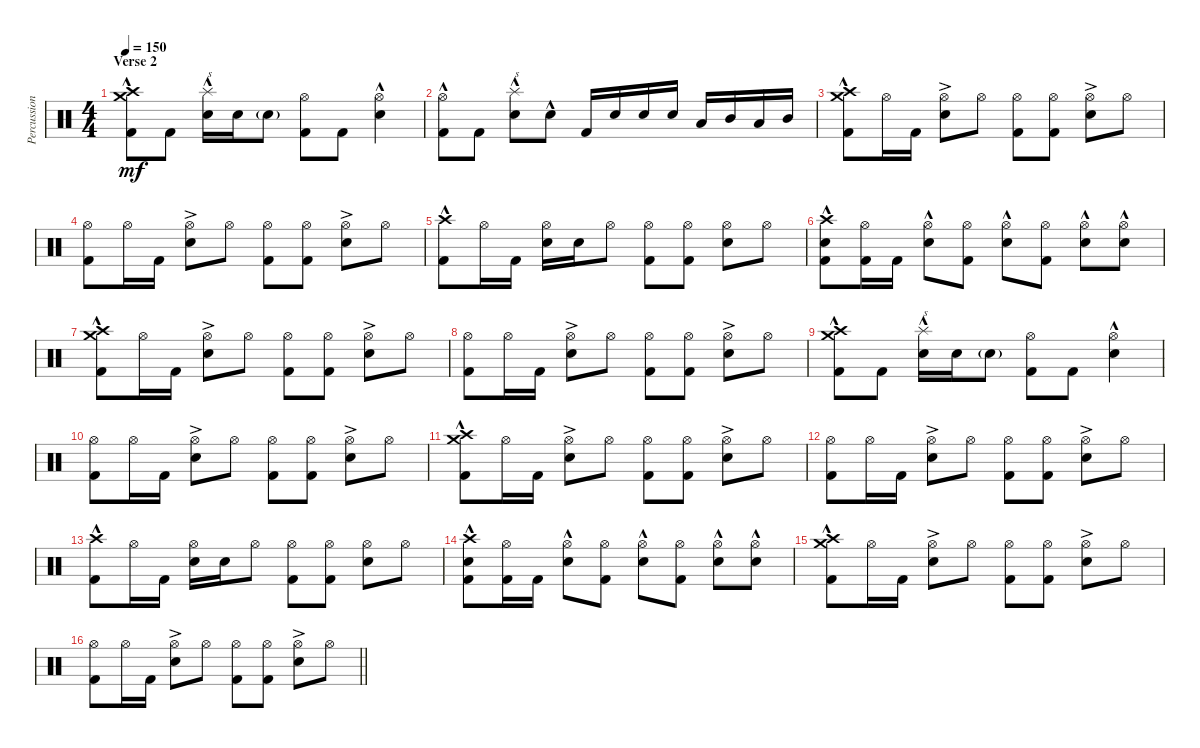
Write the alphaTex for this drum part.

\track ("Percussion" "Percussion") {instrument percussion}
\staff {score}
\articulation defaults
\ts (4 4)
\section ("" "Verse 2")
\tempo 150
\clef neutral
\ks c
("Crash medium (hit)"{hac} "Crash high (hit)"{hac} "Kick (hit) 2").8{dy mf} "Kick (hit) 2".8 ("Splash (hit)"{hac} "Electric Snare (hit)").16{txt "s"} "Electric Snare (hit)".16 "Electric Snare (hit)"{g}.8 ("Hi-Hat (open)" "Kick (hit) 2").8 "Kick (hit) 2".8 ("Hi-Hat (open)" "Electric Snare (hit)"{hac}).4 |
("Hi-Hat (open)"{hac} "Kick (hit) 2").8 "Kick (hit) 2".8 ("Splash (hit)" "Electric Snare (hit)"{hac}).8{txt "s"} "Electric Snare (hit)"{hac}.8 "Kick (hit) 2".16 "Electric Snare (hit)".16 "Electric Snare (hit)".16 "Electric Snare (hit)".16 "Low Tom (hit)".16 "Mid Tom (hit)".16 "Low Tom (hit)".16 "Mid Tom (hit)".16 |
("Crash high (hit)"{hac} "Crash medium (hit)" "Kick (hit) 2").8 "Hi-Hat (open)".16 "Kick (hit) 2".16 ("Hi-Hat (open)" "Electric Snare (hit)"{ac}).8 "Hi-Hat (open)".8 ("Hi-Hat (open)" "Kick (hit) 2").8 ("Hi-Hat (open)" "Kick (hit) 2").8 ("Hi-Hat (open)" "Electric Snare (hit)"{ac}).8 "Hi-Hat (open)".8 |
("Hi-Hat (open)" "Kick (hit) 2").8 "Hi-Hat (open)".16 "Kick (hit) 2".16 ("Hi-Hat (open)" "Electric Snare (hit)"{ac}).8 "Hi-Hat (open)".8 ("Hi-Hat (open)" "Kick (hit) 2").8 ("Hi-Hat (open)" "Kick (hit) 2").8 ("Hi-Hat (open)" "Electric Snare (hit)"{ac}).8 "Hi-Hat (open)".8 |
("Crash high (hit)"{hac} "Kick (hit) 2").8 "Hi-Hat (open)".16 "Kick (hit) 2".16 ("Hi-Hat (open)" "Electric Snare (hit)").16 "Electric Snare (hit)".16 "Hi-Hat (open)".8 ("Hi-Hat (open)" "Kick (hit) 2").8 ("Hi-Hat (open)" "Kick (hit) 2").8 ("Hi-Hat (open)" "Electric Snare (hit)").8 "Hi-Hat (open)".8 |
("Crash high (hit)"{hac} "Electric Snare (hit)"{hac} "Kick (hit) 2").8 ("Hi-Hat (open)" "Kick (hit) 2").16 "Kick (hit) 2".16 ("Hi-Hat (open)" "Electric Snare (hit)"{hac}).8 ("Hi-Hat (open)" "Kick (hit) 2").8 ("Hi-Hat (open)" "Electric Snare (hit)"{hac}).8 ("Hi-Hat (open)" "Kick (hit) 2").8 ("Hi-Hat (open)" "Electric Snare (hit)"{hac}).8 ("Hi-Hat (open)" "Electric Snare (hit)"{hac}).8 |
("Crash high (hit)"{hac} "Crash medium (hit)" "Kick (hit) 2").8 "Hi-Hat (open)".16 "Kick (hit) 2".16 ("Hi-Hat (open)" "Electric Snare (hit)"{ac}).8 "Hi-Hat (open)".8 ("Hi-Hat (open)" "Kick (hit) 2").8 ("Hi-Hat (open)" "Kick (hit) 2").8 ("Hi-Hat (open)" "Electric Snare (hit)"{ac}).8 "Hi-Hat (open)".8 |
("Hi-Hat (open)" "Kick (hit) 2").8 "Hi-Hat (open)".16 "Kick (hit) 2".16 ("Hi-Hat (open)" "Electric Snare (hit)"{ac}).8 "Hi-Hat (open)".8 ("Hi-Hat (open)" "Kick (hit) 2").8 ("Hi-Hat (open)" "Kick (hit) 2").8 ("Hi-Hat (open)" "Electric Snare (hit)"{ac}).8 "Hi-Hat (open)".8 |
("Crash medium (hit)"{hac} "Crash high (hit)"{hac} "Kick (hit) 2").8 "Kick (hit) 2".8 ("Splash (hit)"{hac} "Electric Snare (hit)").16{txt "s"} "Electric Snare (hit)".16 "Electric Snare (hit)"{g}.8 ("Hi-Hat (open)" "Kick (hit) 2").8 "Kick (hit) 2".8 ("Hi-Hat (open)" "Electric Snare (hit)"{hac}).4 |
("Hi-Hat (open)" "Kick (hit) 2").8 "Hi-Hat (open)".16 "Kick (hit) 2".16 ("Hi-Hat (open)" "Electric Snare (hit)"{ac}).8 "Hi-Hat (open)".8 ("Hi-Hat (open)" "Kick (hit) 2").8 ("Hi-Hat (open)" "Kick (hit) 2").8 ("Hi-Hat (open)" "Electric Snare (hit)"{ac}).8 "Hi-Hat (open)".8 |
("Crash high (hit)"{hac} "Crash medium (hit)" "Kick (hit) 2").8 "Hi-Hat (open)".16 "Kick (hit) 2".16 ("Hi-Hat (open)" "Electric Snare (hit)"{ac}).8 "Hi-Hat (open)".8 ("Hi-Hat (open)" "Kick (hit) 2").8 ("Hi-Hat (open)" "Kick (hit) 2").8 ("Hi-Hat (open)" "Electric Snare (hit)"{ac}).8 "Hi-Hat (open)".8 |
("Hi-Hat (open)" "Kick (hit) 2").8 "Hi-Hat (open)".16 "Kick (hit) 2".16 ("Hi-Hat (open)" "Electric Snare (hit)"{ac}).8 "Hi-Hat (open)".8 ("Hi-Hat (open)" "Kick (hit) 2").8 ("Hi-Hat (open)" "Kick (hit) 2").8 ("Hi-Hat (open)" "Electric Snare (hit)"{ac}).8 "Hi-Hat (open)".8 |
("Crash high (hit)"{hac} "Kick (hit) 2").8 "Hi-Hat (open)".16 "Kick (hit) 2".16 ("Hi-Hat (open)" "Electric Snare (hit)").16 "Electric Snare (hit)".16 "Hi-Hat (open)".8 ("Hi-Hat (open)" "Kick (hit) 2").8 ("Hi-Hat (open)" "Kick (hit) 2").8 ("Hi-Hat (open)" "Electric Snare (hit)").8 "Hi-Hat (open)".8 |
("Crash high (hit)"{hac} "Electric Snare (hit)"{hac} "Kick (hit) 2").8 ("Hi-Hat (open)" "Kick (hit) 2").16 "Kick (hit) 2".16 ("Hi-Hat (open)" "Electric Snare (hit)"{hac}).8 ("Hi-Hat (open)" "Kick (hit) 2").8 ("Hi-Hat (open)" "Electric Snare (hit)"{hac}).8 ("Hi-Hat (open)" "Kick (hit) 2").8 ("Hi-Hat (open)" "Electric Snare (hit)"{hac}).8 ("Hi-Hat (open)" "Electric Snare (hit)"{hac}).8 |
("Crash high (hit)"{hac} "Crash medium (hit)" "Kick (hit) 2").8 "Hi-Hat (open)".16 "Kick (hit) 2".16 ("Hi-Hat (open)" "Electric Snare (hit)"{ac}).8 "Hi-Hat (open)".8 ("Hi-Hat (open)" "Kick (hit) 2").8 ("Hi-Hat (open)" "Kick (hit) 2").8 ("Hi-Hat (open)" "Electric Snare (hit)"{ac}).8 "Hi-Hat (open)".8 |
\barLineRight lightlight
("Hi-Hat (open)" "Kick (hit) 2").8 "Hi-Hat (open)".16 "Kick (hit) 2".16 ("Hi-Hat (open)" "Electric Snare (hit)"{ac}).8 "Hi-Hat (open)".8 ("Hi-Hat (open)" "Kick (hit) 2").8 ("Hi-Hat (open)" "Kick (hit) 2").8 ("Hi-Hat (open)" "Electric Snare (hit)"{ac}).8 "Hi-Hat (open)".8
